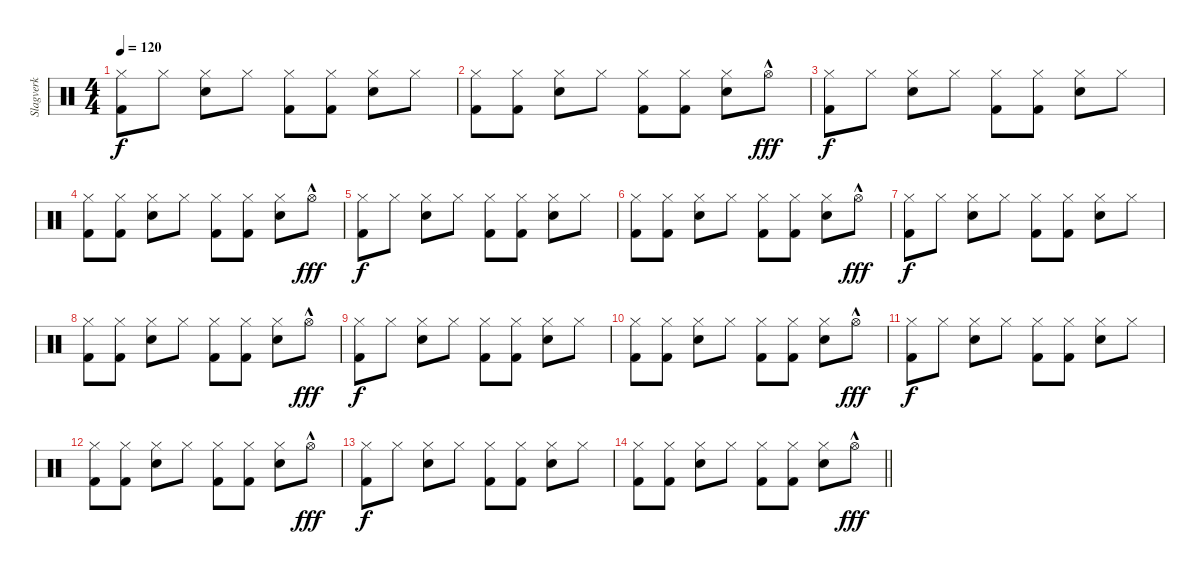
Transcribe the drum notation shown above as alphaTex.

\track ("Slagverk" "Slagverk") {instrument percussion}
\staff {score}
\articulation defaults
\ts (4 4)
\tempo 120
\clef neutral
\ks c
("Hi-Hat (closed)" "Kick (hit) 2").8{dy f} "Hi-Hat (closed)".8 ("Hi-Hat (closed)" "Snare (hit) 2").8 "Hi-Hat (closed)".8 ("Hi-Hat (closed)" "Kick (hit) 2").8 ("Hi-Hat (closed)" "Kick (hit) 2").8 ("Hi-Hat (closed)" "Snare (hit) 2").8 "Hi-Hat (closed)".8 |
("Hi-Hat (closed)" "Kick (hit) 2").8 ("Hi-Hat (closed)" "Kick (hit) 2").8 ("Hi-Hat (closed)" "Snare (hit) 2").8 "Hi-Hat (closed)".8 ("Hi-Hat (closed)" "Kick (hit) 2").8 ("Hi-Hat (closed)" "Kick (hit) 2").8 ("Hi-Hat (closed)" "Snare (hit) 2").8 "Hi-Hat (open)"{hac}.8{dy fff} |
("Hi-Hat (closed)" "Kick (hit) 2").8{dy f} "Hi-Hat (closed)".8 ("Hi-Hat (closed)" "Snare (hit) 2").8 "Hi-Hat (closed)".8 ("Hi-Hat (closed)" "Kick (hit) 2").8 ("Hi-Hat (closed)" "Kick (hit) 2").8 ("Hi-Hat (closed)" "Snare (hit) 2").8 "Hi-Hat (closed)".8 |
("Hi-Hat (closed)" "Kick (hit) 2").8 ("Hi-Hat (closed)" "Kick (hit) 2").8 ("Hi-Hat (closed)" "Snare (hit) 2").8 "Hi-Hat (closed)".8 ("Hi-Hat (closed)" "Kick (hit) 2").8 ("Hi-Hat (closed)" "Kick (hit) 2").8 ("Hi-Hat (closed)" "Snare (hit) 2").8 "Hi-Hat (open)"{hac}.8{dy fff} |
("Hi-Hat (closed)" "Kick (hit) 2").8{dy f} "Hi-Hat (closed)".8 ("Hi-Hat (closed)" "Snare (hit) 2").8 "Hi-Hat (closed)".8 ("Hi-Hat (closed)" "Kick (hit) 2").8 ("Hi-Hat (closed)" "Kick (hit) 2").8 ("Hi-Hat (closed)" "Snare (hit) 2").8 "Hi-Hat (closed)".8 |
("Hi-Hat (closed)" "Kick (hit) 2").8 ("Hi-Hat (closed)" "Kick (hit) 2").8 ("Hi-Hat (closed)" "Snare (hit) 2").8 "Hi-Hat (closed)".8 ("Hi-Hat (closed)" "Kick (hit) 2").8 ("Hi-Hat (closed)" "Kick (hit) 2").8 ("Hi-Hat (closed)" "Snare (hit) 2").8 "Hi-Hat (open)"{hac}.8{dy fff} |
("Hi-Hat (closed)" "Kick (hit) 2").8{dy f} "Hi-Hat (closed)".8 ("Hi-Hat (closed)" "Snare (hit) 2").8 "Hi-Hat (closed)".8 ("Hi-Hat (closed)" "Kick (hit) 2").8 ("Hi-Hat (closed)" "Kick (hit) 2").8 ("Hi-Hat (closed)" "Snare (hit) 2").8 "Hi-Hat (closed)".8 |
("Hi-Hat (closed)" "Kick (hit) 2").8 ("Hi-Hat (closed)" "Kick (hit) 2").8 ("Hi-Hat (closed)" "Snare (hit) 2").8 "Hi-Hat (closed)".8 ("Hi-Hat (closed)" "Kick (hit) 2").8 ("Hi-Hat (closed)" "Kick (hit) 2").8 ("Hi-Hat (closed)" "Snare (hit) 2").8 "Hi-Hat (open)"{hac}.8{dy fff} |
("Hi-Hat (closed)" "Kick (hit) 2").8{dy f} "Hi-Hat (closed)".8 ("Hi-Hat (closed)" "Snare (hit) 2").8 "Hi-Hat (closed)".8 ("Hi-Hat (closed)" "Kick (hit) 2").8 ("Hi-Hat (closed)" "Kick (hit) 2").8 ("Hi-Hat (closed)" "Snare (hit) 2").8 "Hi-Hat (closed)".8 |
("Hi-Hat (closed)" "Kick (hit) 2").8 ("Hi-Hat (closed)" "Kick (hit) 2").8 ("Hi-Hat (closed)" "Snare (hit) 2").8 "Hi-Hat (closed)".8 ("Hi-Hat (closed)" "Kick (hit) 2").8 ("Hi-Hat (closed)" "Kick (hit) 2").8 ("Hi-Hat (closed)" "Snare (hit) 2").8 "Hi-Hat (open)"{hac}.8{dy fff} |
("Hi-Hat (closed)" "Kick (hit) 2").8{dy f} "Hi-Hat (closed)".8 ("Hi-Hat (closed)" "Snare (hit) 2").8 "Hi-Hat (closed)".8 ("Hi-Hat (closed)" "Kick (hit) 2").8 ("Hi-Hat (closed)" "Kick (hit) 2").8 ("Hi-Hat (closed)" "Snare (hit) 2").8 "Hi-Hat (closed)".8 |
("Hi-Hat (closed)" "Kick (hit) 2").8 ("Hi-Hat (closed)" "Kick (hit) 2").8 ("Hi-Hat (closed)" "Snare (hit) 2").8 "Hi-Hat (closed)".8 ("Hi-Hat (closed)" "Kick (hit) 2").8 ("Hi-Hat (closed)" "Kick (hit) 2").8 ("Hi-Hat (closed)" "Snare (hit) 2").8 "Hi-Hat (open)"{hac}.8{dy fff} |
("Hi-Hat (closed)" "Kick (hit) 2").8{dy f} "Hi-Hat (closed)".8 ("Hi-Hat (closed)" "Snare (hit) 2").8 "Hi-Hat (closed)".8 ("Hi-Hat (closed)" "Kick (hit) 2").8 ("Hi-Hat (closed)" "Kick (hit) 2").8 ("Hi-Hat (closed)" "Snare (hit) 2").8 "Hi-Hat (closed)".8 |
\barLineRight lightlight
("Hi-Hat (closed)" "Kick (hit) 2").8 ("Hi-Hat (closed)" "Kick (hit) 2").8 ("Hi-Hat (closed)" "Snare (hit) 2").8 "Hi-Hat (closed)".8 ("Hi-Hat (closed)" "Kick (hit) 2").8 ("Hi-Hat (closed)" "Kick (hit) 2").8 ("Hi-Hat (closed)" "Snare (hit) 2").8 "Hi-Hat (open)"{hac}.8{dy fff}
